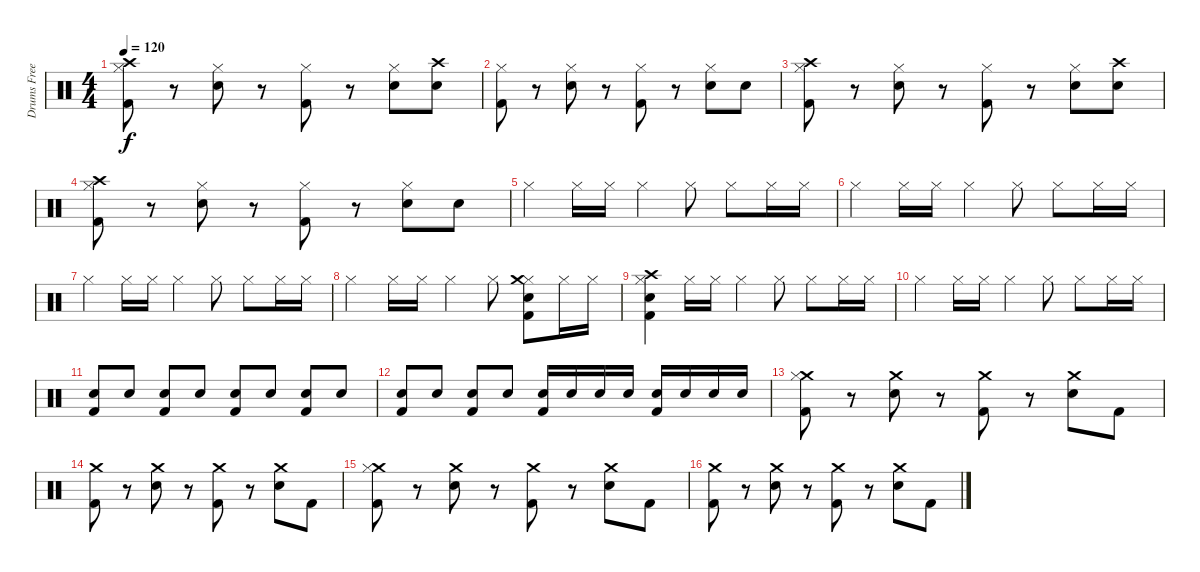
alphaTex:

\track ("Drums Freese" "Drums Free") {instrument percussion}
\staff {score}
\articulation defaults
\ts (4 4)
\tempo 120
\clef neutral
\ks c
("Hi-Hat (closed)" "Crash high (hit)" "Kick (hit) 2").8{dy f} r.8 ("Hi-Hat (closed)" "Snare (hit) 2").8 r.8 ("Hi-Hat (closed)" "Kick (hit) 2").8 r.8 ("Hi-Hat (closed)" "Snare (hit) 2").8 ("Crash high (hit)" "Snare (hit) 2").8 |
("Hi-Hat (closed)" "Kick (hit) 2").8 r.8 ("Hi-Hat (closed)" "Snare (hit) 2").8 r.8 ("Hi-Hat (closed)" "Kick (hit) 2").8 r.8 ("Hi-Hat (closed)" "Snare (hit) 2").8 "Snare (hit) 2".8 |
("Hi-Hat (closed)" "Crash high (hit)" "Kick (hit) 2").8 r.8 ("Hi-Hat (closed)" "Snare (hit) 2").8 r.8 ("Hi-Hat (closed)" "Kick (hit) 2").8 r.8 ("Hi-Hat (closed)" "Snare (hit) 2").8 ("Crash high (hit)" "Snare (hit) 2").8 |
("Hi-Hat (closed)" "Crash high (hit)" "Kick (hit) 2").8 r.8 ("Hi-Hat (closed)" "Snare (hit) 2").8 r.8 ("Hi-Hat (closed)" "Kick (hit) 2").8 r.8 ("Hi-Hat (closed)" "Snare (hit) 2").8 "Snare (hit) 2".8 |
"Hi-Hat (closed)".4 "Hi-Hat (closed)".16 "Hi-Hat (closed)".16 "Hi-Hat (closed)".4 "Hi-Hat (closed)".8 "Hi-Hat (closed)".8 "Hi-Hat (closed)".16 "Hi-Hat (closed)".16 |
"Hi-Hat (closed)".4 "Hi-Hat (closed)".16 "Hi-Hat (closed)".16 "Hi-Hat (closed)".4 "Hi-Hat (closed)".8 "Hi-Hat (closed)".8 "Hi-Hat (closed)".16 "Hi-Hat (closed)".16 |
"Hi-Hat (closed)".4 "Hi-Hat (closed)".16 "Hi-Hat (closed)".16 "Hi-Hat (closed)".4 "Hi-Hat (closed)".8 "Hi-Hat (closed)".8 "Hi-Hat (closed)".16 "Hi-Hat (closed)".16 |
"Hi-Hat (closed)".4 "Hi-Hat (closed)".16 "Hi-Hat (closed)".16 "Hi-Hat (closed)".4 "Hi-Hat (closed)".8 ("Hi-Hat (closed)" "Crash medium (hit)" "Snare (hit) 2" "Kick (hit) 2").8 "Hi-Hat (closed)".16 "Hi-Hat (closed)".16 |
("Hi-Hat (closed)" "Crash high (hit)" "Snare (hit) 2" "Kick (hit) 2").4 "Hi-Hat (closed)".16 "Hi-Hat (closed)".16 "Hi-Hat (closed)".4 "Hi-Hat (closed)".8 "Hi-Hat (closed)".8 "Hi-Hat (closed)".16 "Hi-Hat (closed)".16 |
"Hi-Hat (closed)".4 "Hi-Hat (closed)".16 "Hi-Hat (closed)".16 "Hi-Hat (closed)".4 "Hi-Hat (closed)".8 "Hi-Hat (closed)".8 "Hi-Hat (closed)".16 "Hi-Hat (closed)".16 |
("Snare (hit) 2" "Kick (hit) 2").8 "Snare (hit) 2".8 ("Snare (hit) 2" "Kick (hit) 2").8 "Snare (hit) 2".8 ("Snare (hit) 2" "Kick (hit) 2").8 "Snare (hit) 2".8 ("Snare (hit) 2" "Kick (hit) 2").8 "Snare (hit) 2".8 |
("Snare (hit) 2" "Kick (hit) 2").8 "Snare (hit) 2".8 ("Snare (hit) 2" "Kick (hit) 2").8 "Snare (hit) 2".8 ("Snare (hit) 2" "Kick (hit) 2").16 "Snare (hit) 2".16 "Snare (hit) 2".16 "Snare (hit) 2".16 ("Snare (hit) 2" "Kick (hit) 2").16 "Snare (hit) 2".16 "Snare (hit) 2".16 "Snare (hit) 2".16 |
("Crash medium (hit)" "Hi-Hat (closed)" "Kick (hit) 2").8 r.8 ("Crash medium (hit)" "Snare (hit) 2").8 r.8 ("Crash medium (hit)" "Kick (hit) 2").8 r.8 ("Crash medium (hit)" "Snare (hit) 2").8 "Kick (hit) 2".8 |
("Crash medium (hit)" "Kick (hit) 2").8 r.8 ("Crash medium (hit)" "Snare (hit) 2").8 r.8 ("Crash medium (hit)" "Kick (hit) 2").8 r.8 ("Crash medium (hit)" "Snare (hit) 2").8 "Kick (hit) 2".8 |
("Crash medium (hit)" "Hi-Hat (closed)" "Kick (hit) 2").8 r.8 ("Crash medium (hit)" "Snare (hit) 2").8 r.8 ("Crash medium (hit)" "Kick (hit) 2").8 r.8 ("Crash medium (hit)" "Snare (hit) 2").8 "Kick (hit) 2".8 |
("Crash medium (hit)" "Kick (hit) 2").8 r.8 ("Crash medium (hit)" "Snare (hit) 2").8 r.8 ("Crash medium (hit)" "Kick (hit) 2").8 r.8 ("Crash medium (hit)" "Snare (hit) 2").8 "Kick (hit) 2".8
